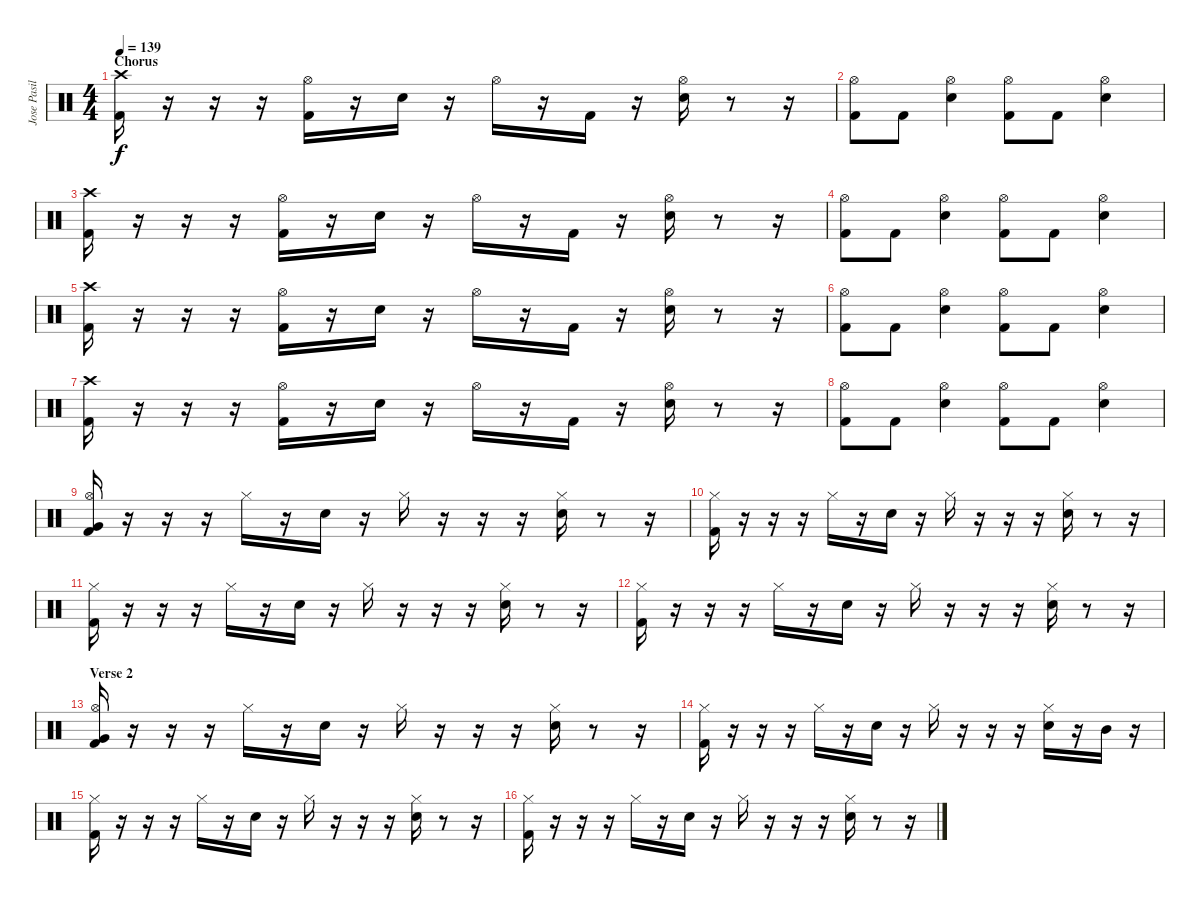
\track ("Jose Pasillas - Drums" "Jose Pasil") {instrument percussion}
\staff {score}
\articulation defaults
\ts (4 4)
\section ("" "Chorus")
\tempo 139
\clef neutral
\ks c
("Crash high (hit)" "Kick (hit) 2").16{dy f} r.16 r.16 r.16 ("Hi-Hat (open)" "Kick (hit) 2").16 r.16 "Electric Snare (hit)".16 r.16 "Hi-Hat (open)".16 r.16 "Kick (hit) 2".16 r.16 ("Hi-Hat (open)" "Electric Snare (hit)").16 r.8 r.16 |
("Hi-Hat (open)" "Kick (hit) 2").8 "Kick (hit) 2".8 ("Hi-Hat (open)" "Electric Snare (hit)").4 ("Hi-Hat (open)" "Kick (hit) 2").8 "Kick (hit) 2".8 ("Hi-Hat (open)" "Electric Snare (hit)").4 |
("Crash high (hit)" "Kick (hit) 2").16 r.16 r.16 r.16 ("Hi-Hat (open)" "Kick (hit) 2").16 r.16 "Electric Snare (hit)".16 r.16 "Hi-Hat (open)".16 r.16 "Kick (hit) 2".16 r.16 ("Hi-Hat (open)" "Electric Snare (hit)").16 r.8 r.16 |
("Hi-Hat (open)" "Kick (hit) 2").8 "Kick (hit) 2".8 ("Hi-Hat (open)" "Electric Snare (hit)").4 ("Hi-Hat (open)" "Kick (hit) 2").8 "Kick (hit) 2".8 ("Hi-Hat (open)" "Electric Snare (hit)").4 |
("Crash high (hit)" "Kick (hit) 2").16 r.16 r.16 r.16 ("Hi-Hat (open)" "Kick (hit) 2").16 r.16 "Electric Snare (hit)".16 r.16 "Hi-Hat (open)".16 r.16 "Kick (hit) 2".16 r.16 ("Hi-Hat (open)" "Electric Snare (hit)").16 r.8 r.16 |
("Hi-Hat (open)" "Kick (hit) 2").8 "Kick (hit) 2".8 ("Hi-Hat (open)" "Electric Snare (hit)").4 ("Hi-Hat (open)" "Kick (hit) 2").8 "Kick (hit) 2".8 ("Hi-Hat (open)" "Electric Snare (hit)").4 |
("Crash high (hit)" "Kick (hit) 2").16 r.16 r.16 r.16 ("Hi-Hat (open)" "Kick (hit) 2").16 r.16 "Electric Snare (hit)".16 r.16 "Hi-Hat (open)".16 r.16 "Kick (hit) 2".16 r.16 ("Hi-Hat (open)" "Electric Snare (hit)").16 r.8 r.16 |
("Hi-Hat (open)" "Kick (hit) 2").8 "Kick (hit) 2".8 ("Hi-Hat (open)" "Electric Snare (hit)").4 ("Hi-Hat (open)" "Kick (hit) 2").8 "Kick (hit) 2".8 ("Hi-Hat (open)" "Electric Snare (hit)").4 |
("Hi-Hat (open)" "Very Low Tom (hit)" "Kick (hit) 2").16 r.16 r.16 r.16 "Hi-Hat (closed)".16 r.16 "Electric Snare (hit)".16 r.16 "Hi-Hat (closed)".16 r.16 r.16 r.16 ("Hi-Hat (closed)" "Electric Snare (hit)").16 r.8 r.16 |
("Hi-Hat (closed)" "Kick (hit) 2").16 r.16 r.16 r.16 "Hi-Hat (closed)".16 r.16 "Electric Snare (hit)".16 r.16 "Hi-Hat (closed)".16 r.16 r.16 r.16 ("Hi-Hat (closed)" "Electric Snare (hit)").16 r.8 r.16 |
("Hi-Hat (closed)" "Kick (hit) 2").16 r.16 r.16 r.16 "Hi-Hat (closed)".16 r.16 "Electric Snare (hit)".16 r.16 "Hi-Hat (closed)".16 r.16 r.16 r.16 ("Hi-Hat (closed)" "Electric Snare (hit)").16 r.8 r.16 |
("Hi-Hat (closed)" "Kick (hit) 2").16 r.16 r.16 r.16 "Hi-Hat (closed)".16 r.16 "Electric Snare (hit)".16 r.16 "Hi-Hat (closed)".16 r.16 r.16 r.16 ("Hi-Hat (closed)" "Electric Snare (hit)").16 r.8 r.16 |
\section ("" "Verse 2")
("Hi-Hat (open)" "Very Low Tom (hit)" "Kick (hit) 2").16 r.16 r.16 r.16 "Hi-Hat (closed)".16 r.16 "Electric Snare (hit)".16 r.16 "Hi-Hat (closed)".16 r.16 r.16 r.16 ("Hi-Hat (closed)" "Electric Snare (hit)").16 r.8 r.16 |
("Hi-Hat (closed)" "Kick (hit) 2").16 r.16 r.16 r.16 "Hi-Hat (closed)".16 r.16 "Electric Snare (hit)".16 r.16 "Hi-Hat (closed)".16 r.16 r.16 r.16 ("Hi-Hat (closed)" "Electric Snare (hit)").16 r.16 "Mid Tom (hit)".16 r.16 |
("Hi-Hat (closed)" "Kick (hit) 2").16 r.16 r.16 r.16 "Hi-Hat (closed)".16 r.16 "Electric Snare (hit)".16 r.16 "Hi-Hat (closed)".16 r.16 r.16 r.16 ("Hi-Hat (closed)" "Electric Snare (hit)").16 r.8 r.16 |
("Hi-Hat (closed)" "Kick (hit) 2").16 r.16 r.16 r.16 "Hi-Hat (closed)".16 r.16 "Electric Snare (hit)".16 r.16 "Hi-Hat (closed)".16 r.16 r.16 r.16 ("Hi-Hat (closed)" "Electric Snare (hit)").16 r.8 r.16
